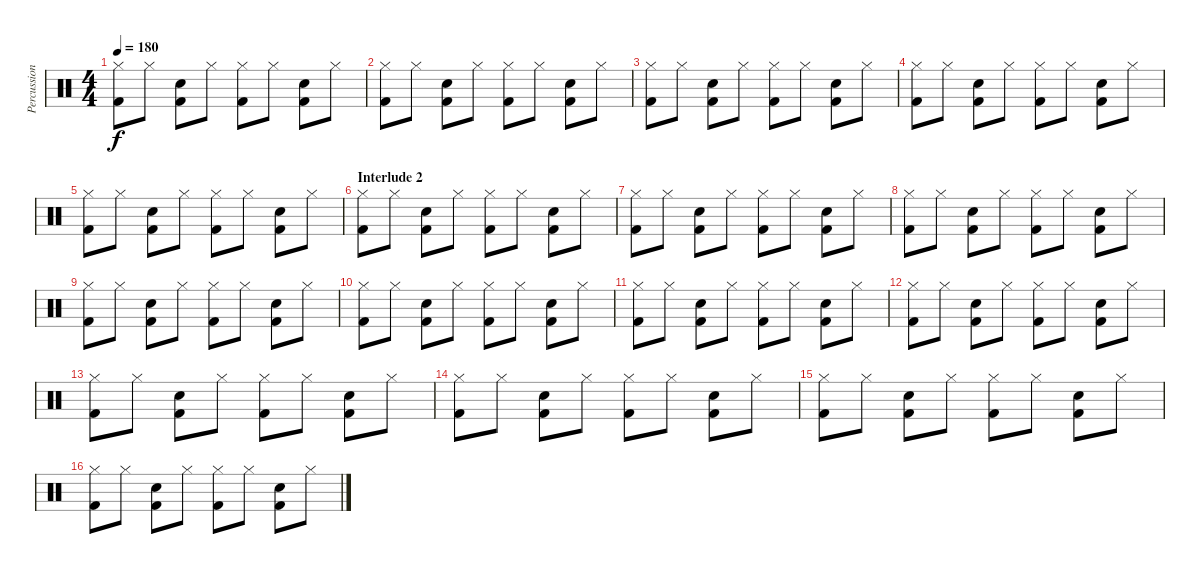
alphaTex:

\track ("Percussion" "Percussion") {instrument percussion}
\staff {score}
\articulation defaults
\ts (4 4)
\tempo 180
\clef neutral
\ks c
("Kick (hit) 2" "Hi-Hat (closed)").8{dy f} "Hi-Hat (closed)".8 ("Kick (hit) 2" "Snare (hit) 2").8 "Hi-Hat (closed)".8 ("Kick (hit) 2" "Hi-Hat (closed)").8 "Hi-Hat (closed)".8 ("Kick (hit) 2" "Electric Snare (hit)").8 "Hi-Hat (closed)".8 |
("Kick (hit) 2" "Hi-Hat (closed)").8 "Hi-Hat (closed)".8 ("Kick (hit) 2" "Snare (hit) 2").8 "Hi-Hat (closed)".8 ("Kick (hit) 2" "Hi-Hat (closed)").8 "Hi-Hat (closed)".8 ("Kick (hit) 2" "Electric Snare (hit)").8 "Hi-Hat (closed)".8 |
("Kick (hit) 2" "Hi-Hat (closed)").8 "Hi-Hat (closed)".8 ("Kick (hit) 2" "Snare (hit) 2").8 "Hi-Hat (closed)".8 ("Kick (hit) 2" "Hi-Hat (closed)").8 "Hi-Hat (closed)".8 ("Kick (hit) 2" "Electric Snare (hit)").8 "Hi-Hat (closed)".8 |
("Kick (hit) 2" "Hi-Hat (closed)").8 "Hi-Hat (closed)".8 ("Kick (hit) 2" "Snare (hit) 2").8 "Hi-Hat (closed)".8 ("Kick (hit) 2" "Hi-Hat (closed)").8 "Hi-Hat (closed)".8 ("Kick (hit) 2" "Electric Snare (hit)").8 "Hi-Hat (closed)".8 |
("Kick (hit) 2" "Hi-Hat (closed)").8 "Hi-Hat (closed)".8 ("Kick (hit) 2" "Snare (hit) 2").8 "Hi-Hat (closed)".8 ("Kick (hit) 2" "Hi-Hat (closed)").8 "Hi-Hat (closed)".8 ("Kick (hit) 2" "Electric Snare (hit)").8 "Hi-Hat (closed)".8 |
\section ("" "Interlude 2")
("Kick (hit) 2" "Hi-Hat (closed)").8 "Hi-Hat (closed)".8 ("Kick (hit) 2" "Snare (hit) 2").8 "Hi-Hat (closed)".8 ("Kick (hit) 2" "Hi-Hat (closed)").8 "Hi-Hat (closed)".8 ("Kick (hit) 2" "Electric Snare (hit)").8 "Hi-Hat (closed)".8 |
("Kick (hit) 2" "Hi-Hat (closed)").8 "Hi-Hat (closed)".8 ("Kick (hit) 2" "Snare (hit) 2").8 "Hi-Hat (closed)".8 ("Kick (hit) 2" "Hi-Hat (closed)").8 "Hi-Hat (closed)".8 ("Kick (hit) 2" "Electric Snare (hit)").8 "Hi-Hat (closed)".8 |
("Kick (hit) 2" "Hi-Hat (closed)").8 "Hi-Hat (closed)".8 ("Kick (hit) 2" "Snare (hit) 2").8 "Hi-Hat (closed)".8 ("Kick (hit) 2" "Hi-Hat (closed)").8 "Hi-Hat (closed)".8 ("Kick (hit) 2" "Electric Snare (hit)").8 "Hi-Hat (closed)".8 |
("Kick (hit) 2" "Hi-Hat (closed)").8 "Hi-Hat (closed)".8 ("Kick (hit) 2" "Snare (hit) 2").8 "Hi-Hat (closed)".8 ("Kick (hit) 2" "Hi-Hat (closed)").8 "Hi-Hat (closed)".8 ("Kick (hit) 2" "Electric Snare (hit)").8 "Hi-Hat (closed)".8 |
("Kick (hit) 2" "Hi-Hat (closed)").8 "Hi-Hat (closed)".8 ("Kick (hit) 2" "Snare (hit) 2").8 "Hi-Hat (closed)".8 ("Kick (hit) 2" "Hi-Hat (closed)").8 "Hi-Hat (closed)".8 ("Kick (hit) 2" "Electric Snare (hit)").8 "Hi-Hat (closed)".8 |
("Kick (hit) 2" "Hi-Hat (closed)").8 "Hi-Hat (closed)".8 ("Kick (hit) 2" "Snare (hit) 2").8 "Hi-Hat (closed)".8 ("Kick (hit) 2" "Hi-Hat (closed)").8 "Hi-Hat (closed)".8 ("Kick (hit) 2" "Electric Snare (hit)").8 "Hi-Hat (closed)".8 |
("Kick (hit) 2" "Hi-Hat (closed)").8 "Hi-Hat (closed)".8 ("Kick (hit) 2" "Snare (hit) 2").8 "Hi-Hat (closed)".8 ("Kick (hit) 2" "Hi-Hat (closed)").8 "Hi-Hat (closed)".8 ("Kick (hit) 2" "Electric Snare (hit)").8 "Hi-Hat (closed)".8 |
("Kick (hit) 2" "Hi-Hat (closed)").8 "Hi-Hat (closed)".8 ("Kick (hit) 2" "Snare (hit) 2").8 "Hi-Hat (closed)".8 ("Kick (hit) 2" "Hi-Hat (closed)").8 "Hi-Hat (closed)".8 ("Kick (hit) 2" "Electric Snare (hit)").8 "Hi-Hat (closed)".8 |
("Kick (hit) 2" "Hi-Hat (closed)").8 "Hi-Hat (closed)".8 ("Kick (hit) 2" "Snare (hit) 2").8 "Hi-Hat (closed)".8 ("Kick (hit) 2" "Hi-Hat (closed)").8 "Hi-Hat (closed)".8 ("Kick (hit) 2" "Electric Snare (hit)").8 "Hi-Hat (closed)".8 |
("Kick (hit) 2" "Hi-Hat (closed)").8 "Hi-Hat (closed)".8 ("Kick (hit) 2" "Snare (hit) 2").8 "Hi-Hat (closed)".8 ("Kick (hit) 2" "Hi-Hat (closed)").8 "Hi-Hat (closed)".8 ("Kick (hit) 2" "Electric Snare (hit)").8 "Hi-Hat (closed)".8 |
("Kick (hit) 2" "Hi-Hat (closed)").8 "Hi-Hat (closed)".8 ("Kick (hit) 2" "Snare (hit) 2").8 "Hi-Hat (closed)".8 ("Kick (hit) 2" "Hi-Hat (closed)").8 "Hi-Hat (closed)".8 ("Kick (hit) 2" "Electric Snare (hit)").8 "Hi-Hat (closed)".8
